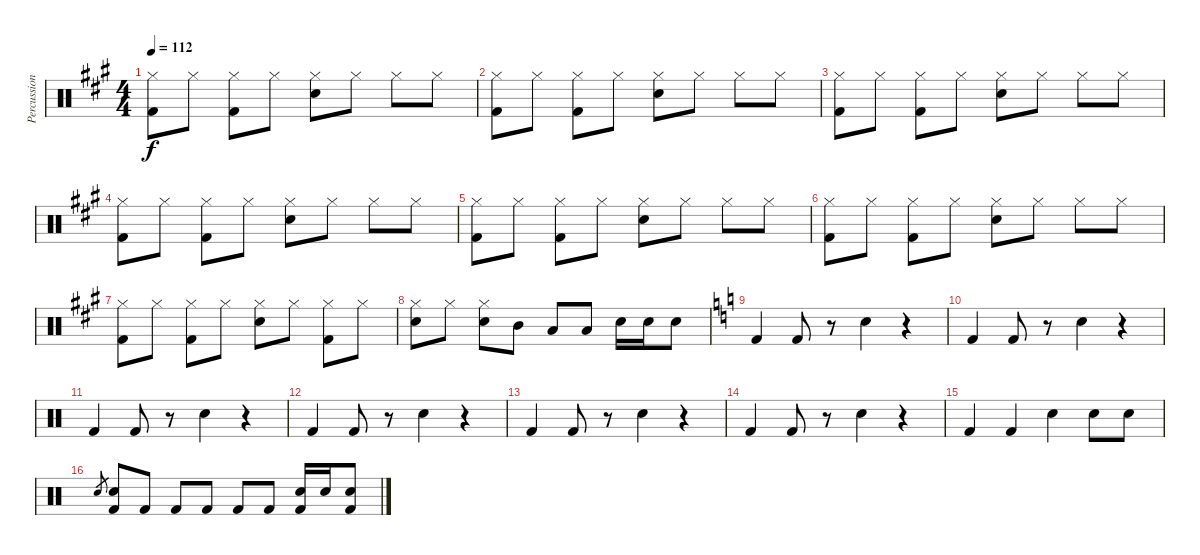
\track ("Percussion" "Percussion") {instrument percussion}
\staff {score}
\articulation defaults
\ts (4 4)
\tempo 112
\clef neutral
\ks a
("Hi-Hat (closed)" "Kick (hit) 2").8{dy f} "Hi-Hat (closed)".8 ("Hi-Hat (closed)" "Kick (hit) 2").8 "Hi-Hat (closed)".8 ("Hi-Hat (closed)" "Snare (hit) 2").8 "Hi-Hat (closed)".8 "Hi-Hat (closed)".8 "Hi-Hat (closed)".8 |
("Hi-Hat (closed)" "Kick (hit) 2").8 "Hi-Hat (closed)".8 ("Hi-Hat (closed)" "Kick (hit) 2").8 "Hi-Hat (closed)".8 ("Hi-Hat (closed)" "Snare (hit) 2").8 "Hi-Hat (closed)".8 "Hi-Hat (closed)".8 "Hi-Hat (closed)".8 |
("Hi-Hat (closed)" "Kick (hit) 2").8 "Hi-Hat (closed)".8 ("Hi-Hat (closed)" "Kick (hit) 2").8 "Hi-Hat (closed)".8 ("Hi-Hat (closed)" "Snare (hit) 2").8 "Hi-Hat (closed)".8 "Hi-Hat (closed)".8 "Hi-Hat (closed)".8 |
("Hi-Hat (closed)" "Kick (hit) 2").8 "Hi-Hat (closed)".8 ("Hi-Hat (closed)" "Kick (hit) 2").8 "Hi-Hat (closed)".8 ("Hi-Hat (closed)" "Snare (hit) 2").8 "Hi-Hat (closed)".8 "Hi-Hat (closed)".8 "Hi-Hat (closed)".8 |
("Hi-Hat (closed)" "Kick (hit) 2").8 "Hi-Hat (closed)".8 ("Hi-Hat (closed)" "Kick (hit) 2").8 "Hi-Hat (closed)".8 ("Hi-Hat (closed)" "Snare (hit) 2").8 "Hi-Hat (closed)".8 "Hi-Hat (closed)".8 "Hi-Hat (closed)".8 |
("Hi-Hat (closed)" "Kick (hit) 2").8 "Hi-Hat (closed)".8 ("Hi-Hat (closed)" "Kick (hit) 2").8 "Hi-Hat (closed)".8 ("Hi-Hat (closed)" "Snare (hit) 2").8 "Hi-Hat (closed)".8 "Hi-Hat (closed)".8 "Hi-Hat (closed)".8 |
("Hi-Hat (closed)" "Kick (hit) 2").8 "Hi-Hat (closed)".8 ("Hi-Hat (closed)" "Kick (hit) 2").8 "Hi-Hat (closed)".8 ("Hi-Hat (closed)" "Snare (hit) 2").8 "Hi-Hat (closed)".8 ("Hi-Hat (closed)" "Kick (hit) 2").8 "Hi-Hat (closed)".8 |
("Hi-Hat (closed)" "Snare (hit) 2").8 "Hi-Hat (closed)".8 ("Hi-Hat (closed)" "Snare (hit) 2").8 "Mid Tom (hit)".8 "Low Tom (hit)".8 "Low Tom (hit)".8 "Snare (hit) 2".16 "Snare (hit) 2".16 "Snare (hit) 2".8 |
\ks c "Kick (hit) 2".4 "Kick (hit) 2".8
r.8 "Snare (hit) 2".4 r.4 |
"Kick (hit) 2".4 "Kick (hit) 2".8 r.8 "Snare (hit) 2".4 r.4 |
"Kick (hit) 2".4 "Kick (hit) 2".8 r.8 "Snare (hit) 2".4 r.4 |
"Kick (hit) 2".4 "Kick (hit) 2".8 r.8 "Snare (hit) 2".4 r.4 |
"Kick (hit) 2".4 "Kick (hit) 2".8 r.8 "Snare (hit) 2".4 r.4 |
"Kick (hit) 2".4 "Kick (hit) 2".8 r.8 "Snare (hit) 2".4 r.4 |
"Kick (hit) 2".4 "Kick (hit) 2".4 "Snare (hit) 2".4 "Snare (hit) 2".8 "Snare (hit) 2".8 |
"Snare (hit) 2".8{gr} ("Snare (hit) 2" "Kick (hit) 2").8 "Kick (hit) 2".8 "Kick (hit) 2".8 "Kick (hit) 2".8 "Kick (hit) 2".8 "Kick (hit) 2".8 ("Snare (hit) 2" "Kick (hit) 2").16 "Snare (hit) 2".16 ("Snare (hit) 2" "Kick (hit) 2").8
